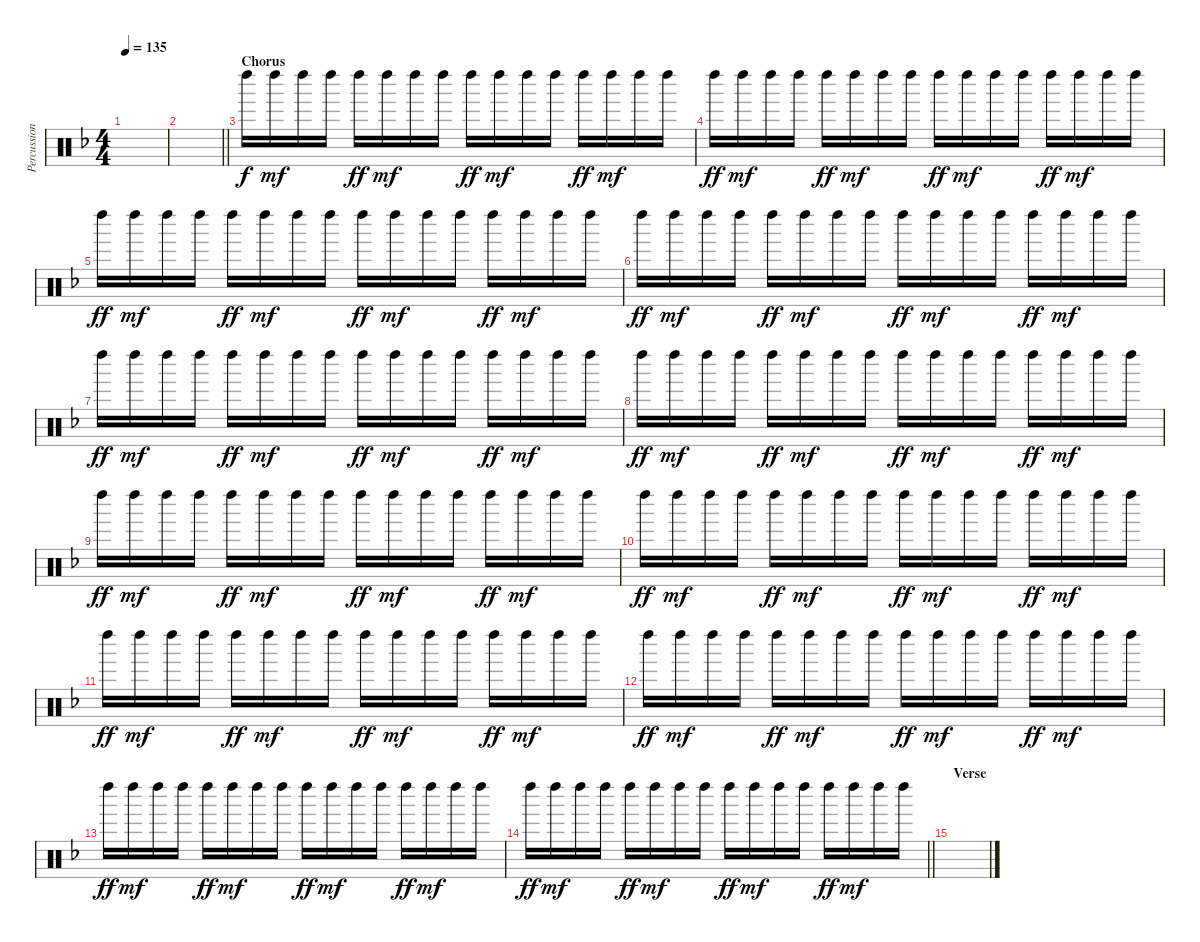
\track ("Percussions" "Percussion") {instrument percussion}
\staff {score}
\articulation defaults
\ts (4 4)
\tempo 135
\clef neutral
\ks f
|
\barLineRight lightlight
|
\section ("" "Chorus")
"Left Maraca (hit)".16 "Left Maraca (hit)".16{dy mf} "Left Maraca (hit)".16 "Left Maraca (hit)".16 "Left Maraca (hit)".16{dy ff} "Left Maraca (hit)".16{dy mf} "Left Maraca (hit)".16 "Left Maraca (hit)".16 "Left Maraca (hit)".16{dy ff} "Left Maraca (hit)".16{dy mf} "Left Maraca (hit)".16 "Left Maraca (hit)".16 "Left Maraca (hit)".16{dy ff} "Left Maraca (hit)".16{dy mf} "Left Maraca (hit)".16 "Left Maraca (hit)".16 |
"Left Maraca (hit)".16{dy ff} "Left Maraca (hit)".16{dy mf} "Left Maraca (hit)".16 "Left Maraca (hit)".16 "Left Maraca (hit)".16{dy ff} "Left Maraca (hit)".16{dy mf} "Left Maraca (hit)".16 "Left Maraca (hit)".16 "Left Maraca (hit)".16{dy ff} "Left Maraca (hit)".16{dy mf} "Left Maraca (hit)".16 "Left Maraca (hit)".16 "Left Maraca (hit)".16{dy ff} "Left Maraca (hit)".16{dy mf} "Left Maraca (hit)".16 "Left Maraca (hit)".16 |
"Left Maraca (hit)".16{dy ff} "Left Maraca (hit)".16{dy mf} "Left Maraca (hit)".16 "Left Maraca (hit)".16 "Left Maraca (hit)".16{dy ff} "Left Maraca (hit)".16{dy mf} "Left Maraca (hit)".16 "Left Maraca (hit)".16 "Left Maraca (hit)".16{dy ff} "Left Maraca (hit)".16{dy mf} "Left Maraca (hit)".16 "Left Maraca (hit)".16 "Left Maraca (hit)".16{dy ff} "Left Maraca (hit)".16{dy mf} "Left Maraca (hit)".16 "Left Maraca (hit)".16 |
"Left Maraca (hit)".16{dy ff} "Left Maraca (hit)".16{dy mf} "Left Maraca (hit)".16 "Left Maraca (hit)".16 "Left Maraca (hit)".16{dy ff} "Left Maraca (hit)".16{dy mf} "Left Maraca (hit)".16 "Left Maraca (hit)".16 "Left Maraca (hit)".16{dy ff} "Left Maraca (hit)".16{dy mf} "Left Maraca (hit)".16 "Left Maraca (hit)".16 "Left Maraca (hit)".16{dy ff} "Left Maraca (hit)".16{dy mf} "Left Maraca (hit)".16 "Left Maraca (hit)".16 |
"Left Maraca (hit)".16{dy ff} "Left Maraca (hit)".16{dy mf} "Left Maraca (hit)".16 "Left Maraca (hit)".16 "Left Maraca (hit)".16{dy ff} "Left Maraca (hit)".16{dy mf} "Left Maraca (hit)".16 "Left Maraca (hit)".16 "Left Maraca (hit)".16{dy ff} "Left Maraca (hit)".16{dy mf} "Left Maraca (hit)".16 "Left Maraca (hit)".16 "Left Maraca (hit)".16{dy ff} "Left Maraca (hit)".16{dy mf} "Left Maraca (hit)".16 "Left Maraca (hit)".16 |
"Left Maraca (hit)".16{dy ff} "Left Maraca (hit)".16{dy mf} "Left Maraca (hit)".16 "Left Maraca (hit)".16 "Left Maraca (hit)".16{dy ff} "Left Maraca (hit)".16{dy mf} "Left Maraca (hit)".16 "Left Maraca (hit)".16 "Left Maraca (hit)".16{dy ff} "Left Maraca (hit)".16{dy mf} "Left Maraca (hit)".16 "Left Maraca (hit)".16 "Left Maraca (hit)".16{dy ff} "Left Maraca (hit)".16{dy mf} "Left Maraca (hit)".16 "Left Maraca (hit)".16 |
"Left Maraca (hit)".16{dy ff} "Left Maraca (hit)".16{dy mf} "Left Maraca (hit)".16 "Left Maraca (hit)".16 "Left Maraca (hit)".16{dy ff} "Left Maraca (hit)".16{dy mf} "Left Maraca (hit)".16 "Left Maraca (hit)".16 "Left Maraca (hit)".16{dy ff} "Left Maraca (hit)".16{dy mf} "Left Maraca (hit)".16 "Left Maraca (hit)".16 "Left Maraca (hit)".16{dy ff} "Left Maraca (hit)".16{dy mf} "Left Maraca (hit)".16 "Left Maraca (hit)".16 |
"Left Maraca (hit)".16{dy ff} "Left Maraca (hit)".16{dy mf} "Left Maraca (hit)".16 "Left Maraca (hit)".16 "Left Maraca (hit)".16{dy ff} "Left Maraca (hit)".16{dy mf} "Left Maraca (hit)".16 "Left Maraca (hit)".16 "Left Maraca (hit)".16{dy ff} "Left Maraca (hit)".16{dy mf} "Left Maraca (hit)".16 "Left Maraca (hit)".16 "Left Maraca (hit)".16{dy ff} "Left Maraca (hit)".16{dy mf} "Left Maraca (hit)".16 "Left Maraca (hit)".16 |
"Left Maraca (hit)".16{dy ff} "Left Maraca (hit)".16{dy mf} "Left Maraca (hit)".16 "Left Maraca (hit)".16 "Left Maraca (hit)".16{dy ff} "Left Maraca (hit)".16{dy mf} "Left Maraca (hit)".16 "Left Maraca (hit)".16 "Left Maraca (hit)".16{dy ff} "Left Maraca (hit)".16{dy mf} "Left Maraca (hit)".16 "Left Maraca (hit)".16 "Left Maraca (hit)".16{dy ff} "Left Maraca (hit)".16{dy mf} "Left Maraca (hit)".16 "Left Maraca (hit)".16 |
"Left Maraca (hit)".16{dy ff} "Left Maraca (hit)".16{dy mf} "Left Maraca (hit)".16 "Left Maraca (hit)".16 "Left Maraca (hit)".16{dy ff} "Left Maraca (hit)".16{dy mf} "Left Maraca (hit)".16 "Left Maraca (hit)".16 "Left Maraca (hit)".16{dy ff} "Left Maraca (hit)".16{dy mf} "Left Maraca (hit)".16 "Left Maraca (hit)".16 "Left Maraca (hit)".16{dy ff} "Left Maraca (hit)".16{dy mf} "Left Maraca (hit)".16 "Left Maraca (hit)".16 |
"Left Maraca (hit)".16{dy ff} "Left Maraca (hit)".16{dy mf} "Left Maraca (hit)".16 "Left Maraca (hit)".16 "Left Maraca (hit)".16{dy ff} "Left Maraca (hit)".16{dy mf} "Left Maraca (hit)".16 "Left Maraca (hit)".16 "Left Maraca (hit)".16{dy ff} "Left Maraca (hit)".16{dy mf} "Left Maraca (hit)".16 "Left Maraca (hit)".16 "Left Maraca (hit)".16{dy ff} "Left Maraca (hit)".16{dy mf} "Left Maraca (hit)".16 "Left Maraca (hit)".16 |
\barLineRight lightlight "Left Maraca (hit)".16{dy ff} "Left Maraca (hit)".16{dy mf} "Left Maraca (hit)".16 "Left Maraca (hit)".16 "Left Maraca (hit)".16{dy ff} "Left Maraca (hit)".16{dy mf} "Left Maraca (hit)".16 "Left Maraca (hit)".16 "Left Maraca (hit)".16{dy ff} "Left Maraca (hit)".16{dy mf} "Left Maraca (hit)".16 "Left Maraca (hit)".16 "Left Maraca (hit)".16{dy ff} "Left Maraca (hit)".16{dy mf} "Left Maraca (hit)".16 "Left Maraca (hit)".16
|
\section ("" "Verse")
